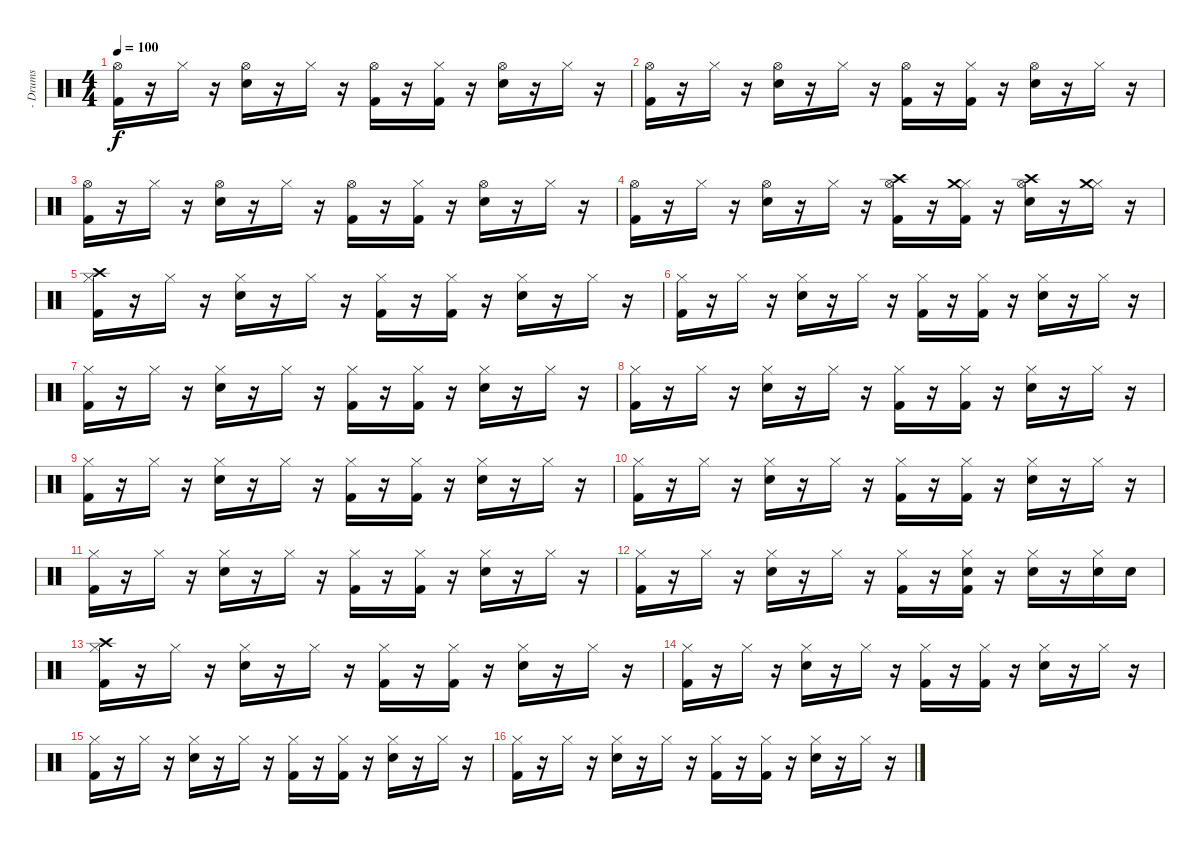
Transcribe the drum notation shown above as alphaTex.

\track ("- Drums" "- Drums") {instrument percussion}
\staff {score}
\articulation defaults
\ts (4 4)
\tempo 100
\clef neutral
\ks c
("Hi-Hat (open)" "Kick (hit) 2").16{dy f} r.16 "Hi-Hat (closed)".16 r.16 ("Hi-Hat (open)" "Electric Snare (hit)").16 r.16 "Hi-Hat (closed)".16 r.16 ("Hi-Hat (open)" "Kick (hit) 2").16 r.16 ("Hi-Hat (closed)" "Kick (hit) 2").16 r.16 ("Hi-Hat (open)" "Electric Snare (hit)").16 r.16 "Hi-Hat (closed)".16 r.16 |
("Hi-Hat (open)" "Kick (hit) 2").16 r.16 "Hi-Hat (closed)".16 r.16 ("Hi-Hat (open)" "Electric Snare (hit)").16 r.16 "Hi-Hat (closed)".16 r.16 ("Hi-Hat (open)" "Kick (hit) 2").16 r.16 ("Hi-Hat (closed)" "Kick (hit) 2").16 r.16 ("Hi-Hat (open)" "Electric Snare (hit)").16 r.16 "Hi-Hat (closed)".16 r.16 |
("Hi-Hat (open)" "Kick (hit) 2").16 r.16 "Hi-Hat (closed)".16 r.16 ("Hi-Hat (open)" "Electric Snare (hit)").16 r.16 "Hi-Hat (closed)".16 r.16 ("Hi-Hat (open)" "Kick (hit) 2").16 r.16 ("Hi-Hat (closed)" "Kick (hit) 2").16 r.16 ("Hi-Hat (open)" "Electric Snare (hit)").16 r.16 "Hi-Hat (closed)".16 r.16 |
("Hi-Hat (open)" "Kick (hit) 2").16 r.16 "Hi-Hat (closed)".16 r.16 ("Hi-Hat (open)" "Electric Snare (hit)").16 r.16 "Hi-Hat (closed)".16 r.16 ("Hi-Hat (open)" "Crash high (hit)" "Kick (hit) 2").16 r.16 ("Hi-Hat (closed)" "Crash medium (hit)" "Kick (hit) 2").16 r.16 ("Hi-Hat (open)" "Crash high (hit)" "Electric Snare (hit)").16 r.16 ("Hi-Hat (closed)" "Crash medium (hit)").16 r.16 |
("Hi-Hat (closed)" "Crash high (hit)" "Kick (hit) 2").16 r.16 "Hi-Hat (closed)".16 r.16 ("Hi-Hat (closed)" "Electric Snare (hit)").16 r.16 "Hi-Hat (closed)".16 r.16 ("Hi-Hat (closed)" "Kick (hit) 2").16 r.16 ("Hi-Hat (closed)" "Kick (hit) 2").16 r.16 ("Hi-Hat (closed)" "Electric Snare (hit)").16 r.16 "Hi-Hat (closed)".16 r.16 |
("Hi-Hat (closed)" "Kick (hit) 2").16 r.16 "Hi-Hat (closed)".16 r.16 ("Hi-Hat (closed)" "Electric Snare (hit)").16 r.16 "Hi-Hat (closed)".16 r.16 ("Hi-Hat (closed)" "Kick (hit) 2").16 r.16 ("Hi-Hat (closed)" "Kick (hit) 2").16 r.16 ("Hi-Hat (closed)" "Electric Snare (hit)").16 r.16 "Hi-Hat (closed)".16 r.16 |
("Hi-Hat (closed)" "Kick (hit) 2").16 r.16 "Hi-Hat (closed)".16 r.16 ("Hi-Hat (closed)" "Electric Snare (hit)").16 r.16 "Hi-Hat (closed)".16 r.16 ("Hi-Hat (closed)" "Kick (hit) 2").16 r.16 ("Hi-Hat (closed)" "Kick (hit) 2").16 r.16 ("Hi-Hat (closed)" "Electric Snare (hit)").16 r.16 "Hi-Hat (closed)".16 r.16 |
("Hi-Hat (closed)" "Kick (hit) 2").16 r.16 "Hi-Hat (closed)".16 r.16 ("Hi-Hat (closed)" "Electric Snare (hit)").16 r.16 "Hi-Hat (closed)".16 r.16 ("Hi-Hat (closed)" "Kick (hit) 2").16 r.16 ("Hi-Hat (closed)" "Kick (hit) 2").16 r.16 ("Hi-Hat (closed)" "Electric Snare (hit)").16 r.16 "Hi-Hat (closed)".16 r.16 |
("Hi-Hat (closed)" "Kick (hit) 2").16 r.16 "Hi-Hat (closed)".16 r.16 ("Hi-Hat (closed)" "Electric Snare (hit)").16 r.16 "Hi-Hat (closed)".16 r.16 ("Hi-Hat (closed)" "Kick (hit) 2").16 r.16 ("Hi-Hat (closed)" "Kick (hit) 2").16 r.16 ("Hi-Hat (closed)" "Electric Snare (hit)").16 r.16 "Hi-Hat (closed)".16 r.16 |
("Hi-Hat (closed)" "Kick (hit) 2").16 r.16 "Hi-Hat (closed)".16 r.16 ("Hi-Hat (closed)" "Electric Snare (hit)").16 r.16 "Hi-Hat (closed)".16 r.16 ("Hi-Hat (closed)" "Kick (hit) 2").16 r.16 ("Hi-Hat (closed)" "Kick (hit) 2").16 r.16 ("Hi-Hat (closed)" "Electric Snare (hit)").16 r.16 "Hi-Hat (closed)".16 r.16 |
("Hi-Hat (closed)" "Kick (hit) 2").16 r.16 "Hi-Hat (closed)".16 r.16 ("Hi-Hat (closed)" "Electric Snare (hit)").16 r.16 "Hi-Hat (closed)".16 r.16 ("Hi-Hat (closed)" "Kick (hit) 2").16 r.16 ("Hi-Hat (closed)" "Kick (hit) 2").16 r.16 ("Hi-Hat (closed)" "Electric Snare (hit)").16 r.16 "Hi-Hat (closed)".16 r.16 |
("Hi-Hat (closed)" "Kick (hit) 2").16 r.16 "Hi-Hat (closed)".16 r.16 ("Hi-Hat (closed)" "Electric Snare (hit)").16 r.16 "Hi-Hat (closed)".16 r.16 ("Hi-Hat (closed)" "Kick (hit) 2").16 r.16 ("Hi-Hat (closed)" "Electric Snare (hit)" "Kick (hit) 2").16 r.16 ("Hi-Hat (closed)" "Electric Snare (hit)").16 r.16 ("Hi-Hat (closed)" "Electric Snare (hit)").16 "Electric Snare (hit)".16 |
("Hi-Hat (closed)" "Crash high (hit)" "Kick (hit) 2").16 r.16 "Hi-Hat (closed)".16 r.16 ("Hi-Hat (closed)" "Electric Snare (hit)").16 r.16 "Hi-Hat (closed)".16 r.16 ("Hi-Hat (closed)" "Kick (hit) 2").16 r.16 ("Hi-Hat (closed)" "Kick (hit) 2").16 r.16 ("Hi-Hat (closed)" "Electric Snare (hit)").16 r.16 "Hi-Hat (closed)".16 r.16 |
("Hi-Hat (closed)" "Kick (hit) 2").16 r.16 "Hi-Hat (closed)".16 r.16 ("Hi-Hat (closed)" "Electric Snare (hit)").16 r.16 "Hi-Hat (closed)".16 r.16 ("Hi-Hat (closed)" "Kick (hit) 2").16 r.16 ("Hi-Hat (closed)" "Kick (hit) 2").16 r.16 ("Hi-Hat (closed)" "Electric Snare (hit)").16 r.16 "Hi-Hat (closed)".16 r.16 |
("Hi-Hat (closed)" "Kick (hit) 2").16 r.16 "Hi-Hat (closed)".16 r.16 ("Hi-Hat (closed)" "Electric Snare (hit)").16 r.16 "Hi-Hat (closed)".16 r.16 ("Hi-Hat (closed)" "Kick (hit) 2").16 r.16 ("Hi-Hat (closed)" "Kick (hit) 2").16 r.16 ("Hi-Hat (closed)" "Electric Snare (hit)").16 r.16 "Hi-Hat (closed)".16 r.16 |
("Hi-Hat (closed)" "Kick (hit) 2").16 r.16 "Hi-Hat (closed)".16 r.16 ("Hi-Hat (closed)" "Electric Snare (hit)").16 r.16 "Hi-Hat (closed)".16 r.16 ("Hi-Hat (closed)" "Kick (hit) 2").16 r.16 ("Hi-Hat (closed)" "Kick (hit) 2").16 r.16 ("Hi-Hat (closed)" "Electric Snare (hit)").16 r.16 "Hi-Hat (closed)".16 r.16
